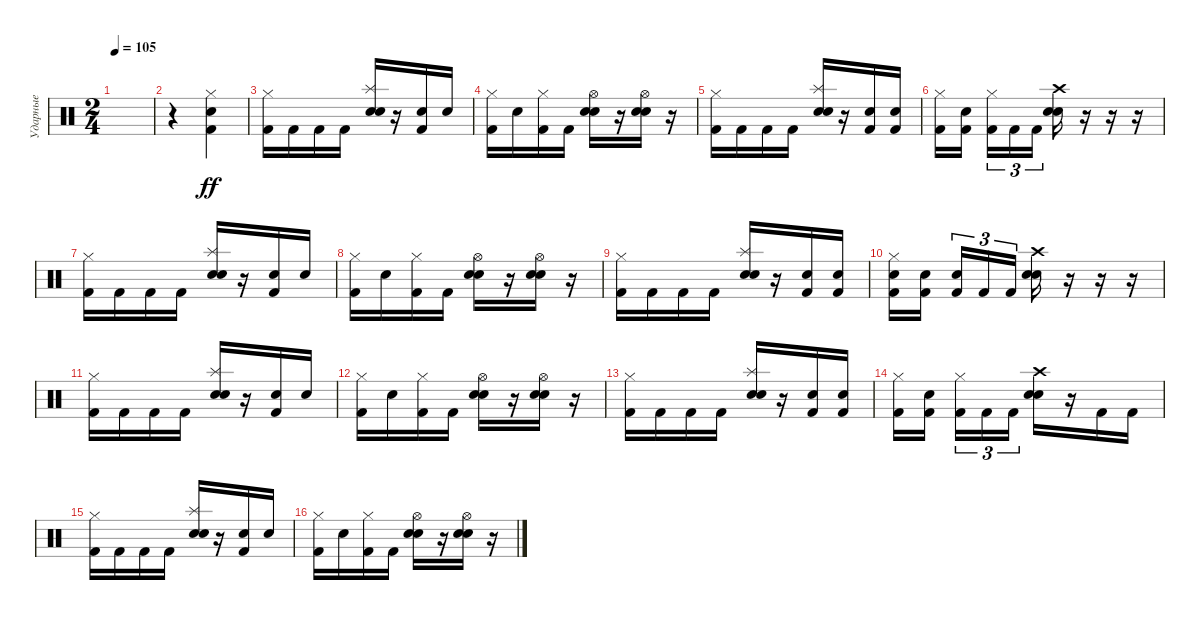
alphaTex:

\track ("Ударные" "Ударные") {instrument percussion}
\staff {score}
\articulation defaults
\ts (2 4)
\tempo 105
\clef neutral
\ks c
|
r.4 ("Hi-Hat (closed)" "Kick (hit) 2" "Electric Snare (hit)").4{dy ff} |
("Hi-Hat (closed)" "Kick (hit) 2").16 "Kick (hit) 2".16 "Kick (hit) 2".16 "Kick (hit) 2".16 ("Splash (hit)" "Snare (hit) 2" "Electric Snare (hit)").16 r.16 ("Kick (hit) 2" "Electric Snare (hit)").16 "Electric Snare (hit)".16 |
("Hi-Hat (closed)" "Kick (hit) 2").16 "Electric Snare (hit)".16 ("Hi-Hat (closed)" "Kick (hit) 2").16 "Kick (hit) 2".16 ("Hi-Hat (open)" "Snare (hit) 2" "Electric Snare (hit)").16 r.16 ("Hi-Hat (open)" "Snare (hit) 2" "Electric Snare (hit)").16 r.16 |
("Hi-Hat (closed)" "Kick (hit) 2").16 "Kick (hit) 2".16 "Kick (hit) 2".16 "Kick (hit) 2".16 ("Splash (hit)" "Snare (hit) 2" "Electric Snare (hit)").16 r.16 ("Kick (hit) 2" "Electric Snare (hit)").16 ("Kick (hit) 2" "Electric Snare (hit)").16 |
("Hi-Hat (closed)" "Kick (hit) 2").16 ("Kick (hit) 2" "Electric Snare (hit)").16 ("Hi-Hat (closed)" "Kick (hit) 2").16{tu (3 2)} "Kick (hit) 2".16{tu (3 2)} "Kick (hit) 2".16{tu (3 2)} ("Crash high (hit)" "Snare (hit) 2" "Electric Snare (hit)").16 r.16 r.16 r.16 |
("Hi-Hat (closed)" "Kick (hit) 2").16 "Kick (hit) 2".16 "Kick (hit) 2".16 "Kick (hit) 2".16 ("Splash (hit)" "Snare (hit) 2" "Electric Snare (hit)").16 r.16 ("Kick (hit) 2" "Electric Snare (hit)").16 "Electric Snare (hit)".16 |
("Hi-Hat (closed)" "Kick (hit) 2").16 "Electric Snare (hit)".16 ("Hi-Hat (closed)" "Kick (hit) 2").16 "Kick (hit) 2".16 ("Hi-Hat (open)" "Snare (hit) 2" "Electric Snare (hit)").16 r.16 ("Hi-Hat (open)" "Snare (hit) 2" "Electric Snare (hit)").16 r.16 |
("Hi-Hat (closed)" "Kick (hit) 2").16 "Kick (hit) 2".16 "Kick (hit) 2".16 "Kick (hit) 2".16 ("Splash (hit)" "Snare (hit) 2" "Electric Snare (hit)").16 r.16 ("Kick (hit) 2" "Electric Snare (hit)").16 ("Kick (hit) 2" "Electric Snare (hit)").16 |
("Hi-Hat (closed)" "Kick (hit) 2" "Electric Snare (hit)").16 ("Kick (hit) 2" "Electric Snare (hit)").16 ("Kick (hit) 2" "Electric Snare (hit)").16{tu (3 2)} "Kick (hit) 2".16{tu (3 2)} "Kick (hit) 2".16{tu (3 2)} ("Crash high (hit)" "Snare (hit) 2" "Electric Snare (hit)").16 r.16 r.16 r.16 |
("Hi-Hat (closed)" "Kick (hit) 2").16 "Kick (hit) 2".16 "Kick (hit) 2".16 "Kick (hit) 2".16 ("Splash (hit)" "Snare (hit) 2" "Electric Snare (hit)").16 r.16 ("Kick (hit) 2" "Electric Snare (hit)").16 "Electric Snare (hit)".16 |
("Hi-Hat (closed)" "Kick (hit) 2").16 "Electric Snare (hit)".16 ("Hi-Hat (closed)" "Kick (hit) 2").16 "Kick (hit) 2".16 ("Hi-Hat (open)" "Snare (hit) 2" "Electric Snare (hit)").16 r.16 ("Hi-Hat (open)" "Snare (hit) 2" "Electric Snare (hit)").16 r.16 |
("Hi-Hat (closed)" "Kick (hit) 2").16 "Kick (hit) 2".16 "Kick (hit) 2".16 "Kick (hit) 2".16 ("Splash (hit)" "Snare (hit) 2" "Electric Snare (hit)").16 r.16 ("Kick (hit) 2" "Electric Snare (hit)").16 ("Kick (hit) 2" "Electric Snare (hit)").16 |
("Hi-Hat (closed)" "Kick (hit) 2").16 ("Kick (hit) 2" "Electric Snare (hit)").16 ("Hi-Hat (closed)" "Kick (hit) 2").16{tu (3 2)} "Kick (hit) 2".16{tu (3 2)} "Kick (hit) 2".16{tu (3 2)} ("Crash high (hit)" "Snare (hit) 2" "Electric Snare (hit)").16 r.16 "Kick (hit) 2".16 "Kick (hit) 2".16 |
("Hi-Hat (closed)" "Kick (hit) 2").16 "Kick (hit) 2".16 "Kick (hit) 2".16 "Kick (hit) 2".16 ("Splash (hit)" "Snare (hit) 2" "Electric Snare (hit)").16 r.16 ("Kick (hit) 2" "Electric Snare (hit)").16 "Electric Snare (hit)".16 |
("Hi-Hat (closed)" "Kick (hit) 2").16 "Electric Snare (hit)".16 ("Hi-Hat (closed)" "Kick (hit) 2").16 "Kick (hit) 2".16 ("Hi-Hat (open)" "Snare (hit) 2" "Electric Snare (hit)").16 r.16 ("Hi-Hat (open)" "Snare (hit) 2" "Electric Snare (hit)").16 r.16
